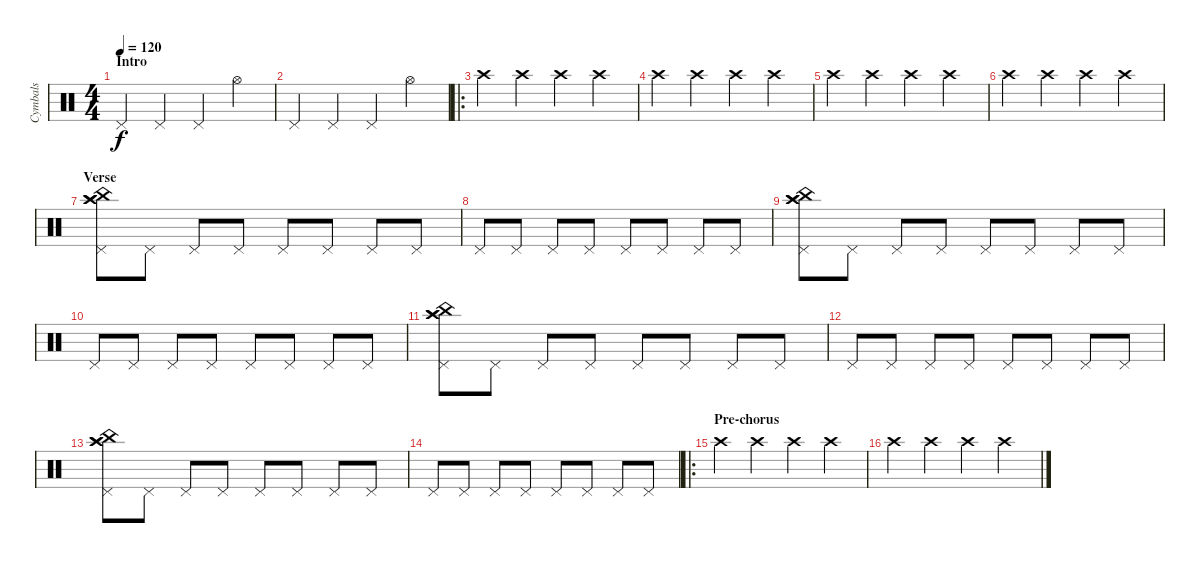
\track ("Cymbals" "Cymbals") {instrument percussion}
\staff {score}
\articulation defaults
\ts (4 4)
\section ("" "Intro")
\tempo 120
\clef neutral
\ks c "Pedal Hi-Hat (hit)".4{dy f} "Pedal Hi-Hat (hit)".4 "Pedal Hi-Hat (hit)".4 "Hi-Hat (open)".4
|
"Pedal Hi-Hat (hit)".4 "Pedal Hi-Hat (hit)".4 "Pedal Hi-Hat (hit)".4 "Hi-Hat (open)".4 |
\ro "Crash high (hit)".4 "Crash high (hit)".4 "Crash high (hit)".4 "Crash high (hit)".4
|
"Crash high (hit)".4 "Crash high (hit)".4 "Crash high (hit)".4 "Crash high (hit)".4 |
"Crash high (hit)".4 "Crash high (hit)".4 "Crash high (hit)".4 "Crash high (hit)".4 |
"Crash high (hit)".4 "Crash high (hit)".4 "Crash high (hit)".4 "Crash high (hit)".4 |
\section ("" "Verse")
("Crash high (hit)" "Crash high (hit)" "Pedal Hi-Hat (hit)" "China (hit)").8 "Pedal Hi-Hat (hit)".8 "Pedal Hi-Hat (hit)".8 "Pedal Hi-Hat (hit)".8 "Pedal Hi-Hat (hit)".8 "Pedal Hi-Hat (hit)".8 "Pedal Hi-Hat (hit)".8 "Pedal Hi-Hat (hit)".8 |
"Pedal Hi-Hat (hit)".8 "Pedal Hi-Hat (hit)".8 "Pedal Hi-Hat (hit)".8 "Pedal Hi-Hat (hit)".8 "Pedal Hi-Hat (hit)".8 "Pedal Hi-Hat (hit)".8 "Pedal Hi-Hat (hit)".8 "Pedal Hi-Hat (hit)".8 |
("Crash high (hit)" "Crash high (hit)" "Pedal Hi-Hat (hit)" "China (hit)").8 "Pedal Hi-Hat (hit)".8 "Pedal Hi-Hat (hit)".8 "Pedal Hi-Hat (hit)".8 "Pedal Hi-Hat (hit)".8 "Pedal Hi-Hat (hit)".8 "Pedal Hi-Hat (hit)".8 "Pedal Hi-Hat (hit)".8 |
"Pedal Hi-Hat (hit)".8 "Pedal Hi-Hat (hit)".8 "Pedal Hi-Hat (hit)".8 "Pedal Hi-Hat (hit)".8 "Pedal Hi-Hat (hit)".8 "Pedal Hi-Hat (hit)".8 "Pedal Hi-Hat (hit)".8 "Pedal Hi-Hat (hit)".8 |
("Crash high (hit)" "Crash high (hit)" "Pedal Hi-Hat (hit)" "China (hit)").8 "Pedal Hi-Hat (hit)".8 "Pedal Hi-Hat (hit)".8 "Pedal Hi-Hat (hit)".8 "Pedal Hi-Hat (hit)".8 "Pedal Hi-Hat (hit)".8 "Pedal Hi-Hat (hit)".8 "Pedal Hi-Hat (hit)".8 |
"Pedal Hi-Hat (hit)".8 "Pedal Hi-Hat (hit)".8 "Pedal Hi-Hat (hit)".8 "Pedal Hi-Hat (hit)".8 "Pedal Hi-Hat (hit)".8 "Pedal Hi-Hat (hit)".8 "Pedal Hi-Hat (hit)".8 "Pedal Hi-Hat (hit)".8 |
("Crash high (hit)" "Crash high (hit)" "Pedal Hi-Hat (hit)" "China (hit)").8 "Pedal Hi-Hat (hit)".8 "Pedal Hi-Hat (hit)".8 "Pedal Hi-Hat (hit)".8 "Pedal Hi-Hat (hit)".8 "Pedal Hi-Hat (hit)".8 "Pedal Hi-Hat (hit)".8 "Pedal Hi-Hat (hit)".8 |
"Pedal Hi-Hat (hit)".8 "Pedal Hi-Hat (hit)".8 "Pedal Hi-Hat (hit)".8 "Pedal Hi-Hat (hit)".8 "Pedal Hi-Hat (hit)".8 "Pedal Hi-Hat (hit)".8 "Pedal Hi-Hat (hit)".8 "Pedal Hi-Hat (hit)".8 |
\ro
\section ("" "Pre-chorus")
"Crash high (hit)".4 "Crash high (hit)".4 "Crash high (hit)".4 "Crash high (hit)".4 |
"Crash high (hit)".4 "Crash high (hit)".4 "Crash high (hit)".4 "Crash high (hit)".4
